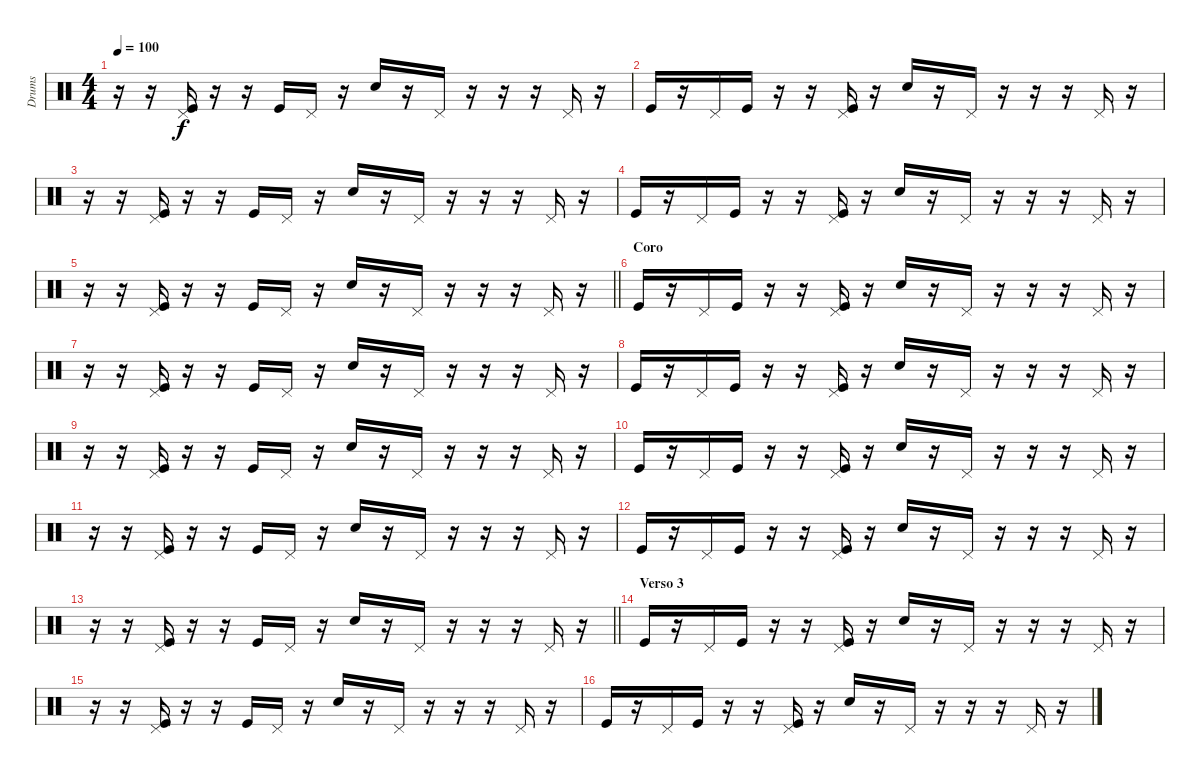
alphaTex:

\track ("Drums " "Drums ") {instrument percussion}
\staff {score}
\articulation defaults
\ts (4 4)
\tempo 100
\clef neutral
\ks c
r.16{dy f} r.16 ("Pedal Hi-Hat (hit)" "Kick (hit)").16 r.16 r.16 "Kick (hit)".16 "Pedal Hi-Hat (hit)".16 r.16 "Snare (hit) 2".16 r.16 "Pedal Hi-Hat (hit)".16 r.16 r.16 r.16 "Pedal Hi-Hat (hit)".16 r.16 |
"Kick (hit)".16 r.16 "Pedal Hi-Hat (hit)".16 "Kick (hit)".16 r.16 r.16 ("Pedal Hi-Hat (hit)" "Kick (hit)").16 r.16 "Snare (hit) 2".16 r.16 "Pedal Hi-Hat (hit)".16 r.16 r.16 r.16 "Pedal Hi-Hat (hit)".16 r.16 |
r.16 r.16 ("Pedal Hi-Hat (hit)" "Kick (hit)").16 r.16 r.16 "Kick (hit)".16 "Pedal Hi-Hat (hit)".16 r.16 "Snare (hit) 2".16 r.16 "Pedal Hi-Hat (hit)".16 r.16 r.16 r.16 "Pedal Hi-Hat (hit)".16 r.16 |
"Kick (hit)".16 r.16 "Pedal Hi-Hat (hit)".16 "Kick (hit)".16 r.16 r.16 ("Pedal Hi-Hat (hit)" "Kick (hit)").16 r.16 "Snare (hit) 2".16 r.16 "Pedal Hi-Hat (hit)".16 r.16 r.16 r.16 "Pedal Hi-Hat (hit)".16 r.16 |
\barLineRight lightlight
r.16 r.16 ("Pedal Hi-Hat (hit)" "Kick (hit)").16 r.16 r.16 "Kick (hit)".16 "Pedal Hi-Hat (hit)".16 r.16 "Snare (hit) 2".16 r.16 "Pedal Hi-Hat (hit)".16 r.16 r.16 r.16 "Pedal Hi-Hat (hit)".16 r.16 |
\section ("" "Coro ")
"Kick (hit)".16 r.16 "Pedal Hi-Hat (hit)".16 "Kick (hit)".16 r.16 r.16 ("Pedal Hi-Hat (hit)" "Kick (hit)").16 r.16 "Snare (hit) 2".16 r.16 "Pedal Hi-Hat (hit)".16 r.16 r.16 r.16 "Pedal Hi-Hat (hit)".16 r.16 |
r.16 r.16 ("Pedal Hi-Hat (hit)" "Kick (hit)").16 r.16 r.16 "Kick (hit)".16 "Pedal Hi-Hat (hit)".16 r.16 "Snare (hit) 2".16 r.16 "Pedal Hi-Hat (hit)".16 r.16 r.16 r.16 "Pedal Hi-Hat (hit)".16 r.16 |
"Kick (hit)".16 r.16 "Pedal Hi-Hat (hit)".16 "Kick (hit)".16 r.16 r.16 ("Pedal Hi-Hat (hit)" "Kick (hit)").16 r.16 "Snare (hit) 2".16 r.16 "Pedal Hi-Hat (hit)".16 r.16 r.16 r.16 "Pedal Hi-Hat (hit)".16 r.16 |
r.16 r.16 ("Pedal Hi-Hat (hit)" "Kick (hit)").16 r.16 r.16 "Kick (hit)".16 "Pedal Hi-Hat (hit)".16 r.16 "Snare (hit) 2".16 r.16 "Pedal Hi-Hat (hit)".16 r.16 r.16 r.16 "Pedal Hi-Hat (hit)".16 r.16 |
"Kick (hit)".16 r.16 "Pedal Hi-Hat (hit)".16 "Kick (hit)".16 r.16 r.16 ("Pedal Hi-Hat (hit)" "Kick (hit)").16 r.16 "Snare (hit) 2".16 r.16 "Pedal Hi-Hat (hit)".16 r.16 r.16 r.16 "Pedal Hi-Hat (hit)".16 r.16 |
r.16 r.16 ("Pedal Hi-Hat (hit)" "Kick (hit)").16 r.16 r.16 "Kick (hit)".16 "Pedal Hi-Hat (hit)".16 r.16 "Snare (hit) 2".16 r.16 "Pedal Hi-Hat (hit)".16 r.16 r.16 r.16 "Pedal Hi-Hat (hit)".16 r.16 |
"Kick (hit)".16 r.16 "Pedal Hi-Hat (hit)".16 "Kick (hit)".16 r.16 r.16 ("Pedal Hi-Hat (hit)" "Kick (hit)").16 r.16 "Snare (hit) 2".16 r.16 "Pedal Hi-Hat (hit)".16 r.16 r.16 r.16 "Pedal Hi-Hat (hit)".16 r.16 |
\barLineRight lightlight
r.16 r.16 ("Pedal Hi-Hat (hit)" "Kick (hit)").16 r.16 r.16 "Kick (hit)".16 "Pedal Hi-Hat (hit)".16 r.16 "Snare (hit) 2".16 r.16 "Pedal Hi-Hat (hit)".16 r.16 r.16 r.16 "Pedal Hi-Hat (hit)".16 r.16 |
\section ("" "Verso 3")
"Kick (hit)".16 r.16 "Pedal Hi-Hat (hit)".16 "Kick (hit)".16 r.16 r.16 ("Pedal Hi-Hat (hit)" "Kick (hit)").16 r.16 "Snare (hit) 2".16 r.16 "Pedal Hi-Hat (hit)".16 r.16 r.16 r.16 "Pedal Hi-Hat (hit)".16 r.16 |
r.16 r.16 ("Pedal Hi-Hat (hit)" "Kick (hit)").16 r.16 r.16 "Kick (hit)".16 "Pedal Hi-Hat (hit)".16 r.16 "Snare (hit) 2".16 r.16 "Pedal Hi-Hat (hit)".16 r.16 r.16 r.16 "Pedal Hi-Hat (hit)".16 r.16 |
"Kick (hit)".16 r.16 "Pedal Hi-Hat (hit)".16 "Kick (hit)".16 r.16 r.16 ("Pedal Hi-Hat (hit)" "Kick (hit)").16 r.16 "Snare (hit) 2".16 r.16 "Pedal Hi-Hat (hit)".16 r.16 r.16 r.16 "Pedal Hi-Hat (hit)".16 r.16
